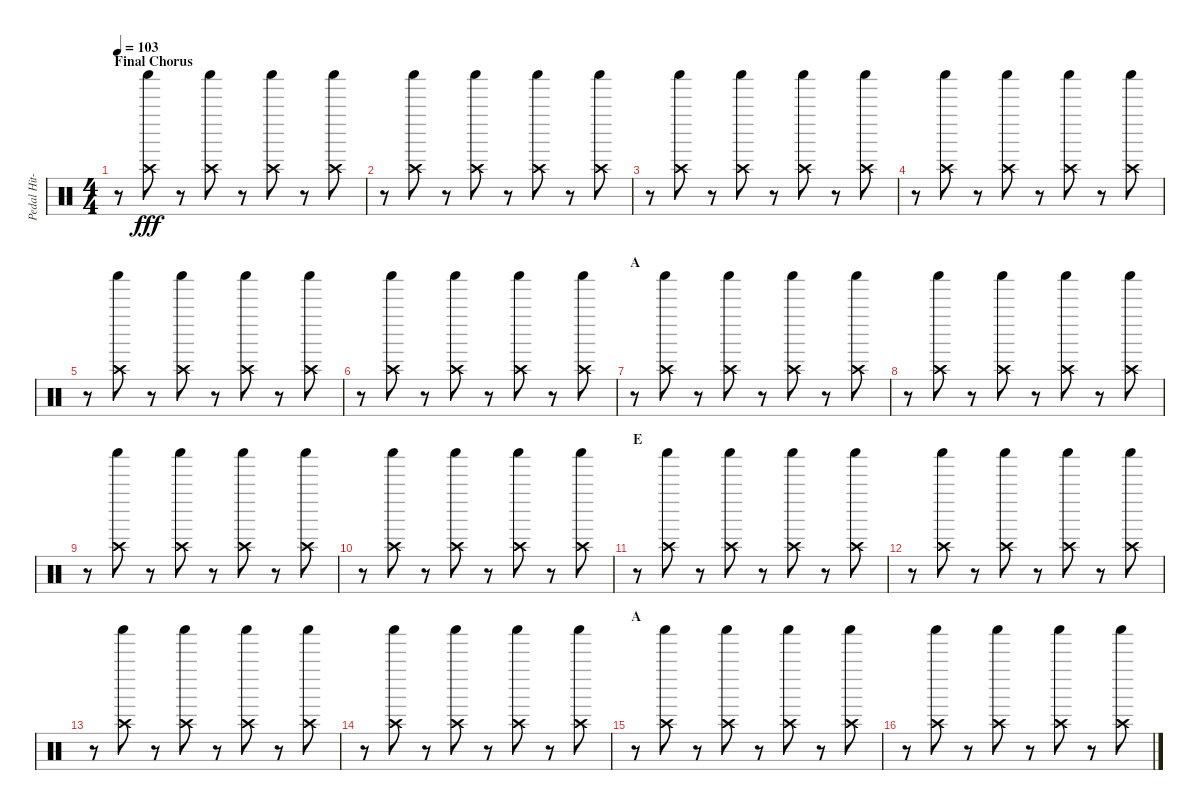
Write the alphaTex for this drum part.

\track ("Pedal Hit-Hat" "Pedal Hit-") {instrument percussion}
\staff {score}
\articulation defaults
\ts (4 4)
\section ("" "Final Chorus")
\tempo 103
\clef neutral
\ks c
r.8{dy fff} ("Crash high (hit)" "Shaker (hit)").8 r.8 ("Crash high (hit)" "Shaker (hit)").8 r.8 ("Crash high (hit)" "Shaker (hit)").8 r.8 ("Crash high (hit)" "Shaker (hit)").8 |
r.8 ("Crash high (hit)" "Shaker (hit)").8 r.8 ("Crash high (hit)" "Shaker (hit)").8 r.8 ("Crash high (hit)" "Shaker (hit)").8 r.8 ("Crash high (hit)" "Shaker (hit)").8 |
r.8 ("Crash high (hit)" "Shaker (hit)").8 r.8 ("Crash high (hit)" "Shaker (hit)").8 r.8 ("Crash high (hit)" "Shaker (hit)").8 r.8 ("Crash high (hit)" "Shaker (hit)").8 |
r.8 ("Crash high (hit)" "Shaker (hit)").8 r.8 ("Crash high (hit)" "Shaker (hit)").8 r.8 ("Crash high (hit)" "Shaker (hit)").8 r.8 ("Crash high (hit)" "Shaker (hit)").8 |
r.8 ("Crash high (hit)" "Shaker (hit)").8 r.8 ("Crash high (hit)" "Shaker (hit)").8 r.8 ("Crash high (hit)" "Shaker (hit)").8 r.8 ("Crash high (hit)" "Shaker (hit)").8 |
r.8 ("Crash high (hit)" "Shaker (hit)").8 r.8 ("Crash high (hit)" "Shaker (hit)").8 r.8 ("Crash high (hit)" "Shaker (hit)").8 r.8 ("Crash high (hit)" "Shaker (hit)").8 |
\section ("" "A")
r.8 ("Crash high (hit)" "Shaker (hit)").8 r.8 ("Crash high (hit)" "Shaker (hit)").8 r.8 ("Crash high (hit)" "Shaker (hit)").8 r.8 ("Crash high (hit)" "Shaker (hit)").8 |
r.8 ("Crash high (hit)" "Shaker (hit)").8 r.8 ("Crash high (hit)" "Shaker (hit)").8 r.8 ("Crash high (hit)" "Shaker (hit)").8 r.8 ("Crash high (hit)" "Shaker (hit)").8 |
r.8 ("Crash high (hit)" "Shaker (hit)").8 r.8 ("Crash high (hit)" "Shaker (hit)").8 r.8 ("Crash high (hit)" "Shaker (hit)").8 r.8 ("Crash high (hit)" "Shaker (hit)").8 |
r.8 ("Crash high (hit)" "Shaker (hit)").8 r.8 ("Crash high (hit)" "Shaker (hit)").8 r.8 ("Crash high (hit)" "Shaker (hit)").8 r.8 ("Crash high (hit)" "Shaker (hit)").8 |
\section ("" "E")
r.8 ("Crash high (hit)" "Shaker (hit)").8 r.8 ("Crash high (hit)" "Shaker (hit)").8 r.8 ("Crash high (hit)" "Shaker (hit)").8 r.8 ("Crash high (hit)" "Shaker (hit)").8 |
r.8 ("Crash high (hit)" "Shaker (hit)").8 r.8 ("Crash high (hit)" "Shaker (hit)").8 r.8 ("Crash high (hit)" "Shaker (hit)").8 r.8 ("Crash high (hit)" "Shaker (hit)").8 |
r.8 ("Crash high (hit)" "Shaker (hit)").8 r.8 ("Crash high (hit)" "Shaker (hit)").8 r.8 ("Crash high (hit)" "Shaker (hit)").8 r.8 ("Crash high (hit)" "Shaker (hit)").8 |
r.8 ("Crash high (hit)" "Shaker (hit)").8 r.8 ("Crash high (hit)" "Shaker (hit)").8 r.8 ("Crash high (hit)" "Shaker (hit)").8 r.8 ("Crash high (hit)" "Shaker (hit)").8 |
\section ("" "A")
r.8 ("Crash high (hit)" "Shaker (hit)").8 r.8 ("Crash high (hit)" "Shaker (hit)").8 r.8 ("Crash high (hit)" "Shaker (hit)").8 r.8 ("Crash high (hit)" "Shaker (hit)").8 |
r.8 ("Crash high (hit)" "Shaker (hit)").8 r.8 ("Crash high (hit)" "Shaker (hit)").8 r.8 ("Crash high (hit)" "Shaker (hit)").8 r.8 ("Crash high (hit)" "Shaker (hit)").8
